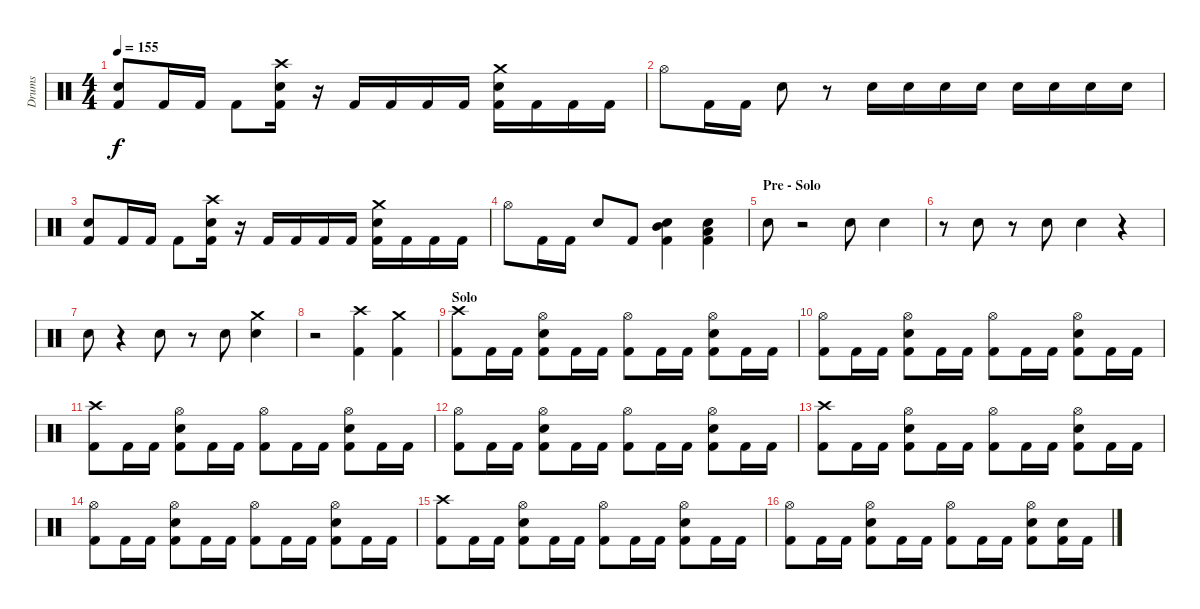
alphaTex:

\track ("Drums" "Drums") {instrument percussion}
\staff {score}
\articulation defaults
\ts (4 4)
\tempo 155
\clef neutral
\ks c
("Snare (hit) 2" "Kick (hit) 2").8{dy f} "Kick (hit) 2".16 "Kick (hit) 2".16 "Kick (hit) 2".8 ("Crash high (hit)" "Snare (hit) 2" "Kick (hit) 2").16 r.16 "Kick (hit) 2".16 "Kick (hit) 2".16 "Kick (hit) 2".16 "Kick (hit) 2".16 ("Crash medium (hit)" "Snare (hit) 2" "Kick (hit) 2").16 "Kick (hit) 2".16 "Kick (hit) 2".16 "Kick (hit) 2".16 |
"Hi-Hat (open)".8 "Kick (hit) 2".16 "Kick (hit) 2".16 "Snare (hit) 2".8 r.8 "Snare (hit) 2".16 "Snare (hit) 2".16 "Snare (hit) 2".16 "Snare (hit) 2".16 "Snare (hit) 2".16 "Snare (hit) 2".16 "Snare (hit) 2".16 "Snare (hit) 2".16 |
("Snare (hit) 2" "Kick (hit) 2").8 "Kick (hit) 2".16 "Kick (hit) 2".16 "Kick (hit) 2".8 ("Crash high (hit)" "Snare (hit) 2" "Kick (hit) 2").16 r.16 "Kick (hit) 2".16 "Kick (hit) 2".16 "Kick (hit) 2".16 "Kick (hit) 2".16 ("Crash medium (hit)" "Snare (hit) 2" "Kick (hit) 2").16 "Kick (hit) 2".16 "Kick (hit) 2".16 "Kick (hit) 2".16 |
"Hi-Hat (open)".8 "Kick (hit) 2".16 "Kick (hit) 2".16 "Snare (hit) 2".8 "Kick (hit) 2".8 ("Mid Tom (hit)" "Snare (hit) 2" "Kick (hit) 2").4 ("Low Tom (hit)" "Snare (hit) 2" "Kick (hit) 2").4 |
\section ("" "Pre - Solo")
"Snare (hit) 2".8 r.2 "Snare (hit) 2".8 "Snare (hit) 2".4 |
r.8 "Snare (hit) 2".8 r.8 "Snare (hit) 2".8 "Snare (hit) 2".4 r.4 |
"Snare (hit) 2".8 r.4 "Snare (hit) 2".8 r.8 "Snare (hit) 2".8 ("Crash medium (hit)" "Snare (hit) 2").4 |
r.2 ("Crash high (hit)" "Kick (hit) 2").4 ("Crash medium (hit)" "Kick (hit) 2").4 |
\section ("" "Solo")
("Crash high (hit)" "Kick (hit) 2").8 "Kick (hit) 2".16 "Kick (hit) 2".16 ("Hi-Hat (open)" "Snare (hit) 2" "Kick (hit) 2").8 "Kick (hit) 2".16 "Kick (hit) 2".16 ("Hi-Hat (open)" "Kick (hit) 2").8 "Kick (hit) 2".16 "Kick (hit) 2".16 ("Hi-Hat (open)" "Snare (hit) 2" "Kick (hit) 2").8 "Kick (hit) 2".16 "Kick (hit) 2".16 |
("Hi-Hat (open)" "Kick (hit) 2").8 "Kick (hit) 2".16 "Kick (hit) 2".16 ("Hi-Hat (open)" "Snare (hit) 2" "Kick (hit) 2").8 "Kick (hit) 2".16 "Kick (hit) 2".16 ("Hi-Hat (open)" "Kick (hit) 2").8 "Kick (hit) 2".16 "Kick (hit) 2".16 ("Hi-Hat (open)" "Snare (hit) 2" "Kick (hit) 2").8 "Kick (hit) 2".16 "Kick (hit) 2".16 |
("Crash high (hit)" "Kick (hit) 2").8 "Kick (hit) 2".16 "Kick (hit) 2".16 ("Hi-Hat (open)" "Snare (hit) 2" "Kick (hit) 2").8 "Kick (hit) 2".16 "Kick (hit) 2".16 ("Hi-Hat (open)" "Kick (hit) 2").8 "Kick (hit) 2".16 "Kick (hit) 2".16 ("Hi-Hat (open)" "Snare (hit) 2" "Kick (hit) 2").8 "Kick (hit) 2".16 "Kick (hit) 2".16 |
("Hi-Hat (open)" "Kick (hit) 2").8 "Kick (hit) 2".16 "Kick (hit) 2".16 ("Hi-Hat (open)" "Snare (hit) 2" "Kick (hit) 2").8 "Kick (hit) 2".16 "Kick (hit) 2".16 ("Hi-Hat (open)" "Kick (hit) 2").8 "Kick (hit) 2".16 "Kick (hit) 2".16 ("Hi-Hat (open)" "Snare (hit) 2" "Kick (hit) 2").8 "Kick (hit) 2".16 "Kick (hit) 2".16 |
("Crash high (hit)" "Kick (hit) 2").8 "Kick (hit) 2".16 "Kick (hit) 2".16 ("Hi-Hat (open)" "Snare (hit) 2" "Kick (hit) 2").8 "Kick (hit) 2".16 "Kick (hit) 2".16 ("Hi-Hat (open)" "Kick (hit) 2").8 "Kick (hit) 2".16 "Kick (hit) 2".16 ("Hi-Hat (open)" "Snare (hit) 2" "Kick (hit) 2").8 "Kick (hit) 2".16 "Kick (hit) 2".16 |
("Hi-Hat (open)" "Kick (hit) 2").8 "Kick (hit) 2".16 "Kick (hit) 2".16 ("Hi-Hat (open)" "Snare (hit) 2" "Kick (hit) 2").8 "Kick (hit) 2".16 "Kick (hit) 2".16 ("Hi-Hat (open)" "Kick (hit) 2").8 "Kick (hit) 2".16 "Kick (hit) 2".16 ("Hi-Hat (open)" "Snare (hit) 2" "Kick (hit) 2").8 "Kick (hit) 2".16 "Kick (hit) 2".16 |
("Crash high (hit)" "Kick (hit) 2").8 "Kick (hit) 2".16 "Kick (hit) 2".16 ("Hi-Hat (open)" "Snare (hit) 2" "Kick (hit) 2").8 "Kick (hit) 2".16 "Kick (hit) 2".16 ("Hi-Hat (open)" "Kick (hit) 2").8 "Kick (hit) 2".16 "Kick (hit) 2".16 ("Hi-Hat (open)" "Snare (hit) 2" "Kick (hit) 2").8 "Kick (hit) 2".16 "Kick (hit) 2".16 |
("Hi-Hat (open)" "Kick (hit) 2").8 "Kick (hit) 2".16 "Kick (hit) 2".16 ("Hi-Hat (open)" "Snare (hit) 2" "Kick (hit) 2").8 "Kick (hit) 2".16 "Kick (hit) 2".16 ("Hi-Hat (open)" "Kick (hit) 2").8 "Kick (hit) 2".16 "Kick (hit) 2".16 ("Hi-Hat (open)" "Snare (hit) 2" "Kick (hit) 2").8 ("Snare (hit) 2" "Kick (hit) 2").16 "Kick (hit) 2".16
